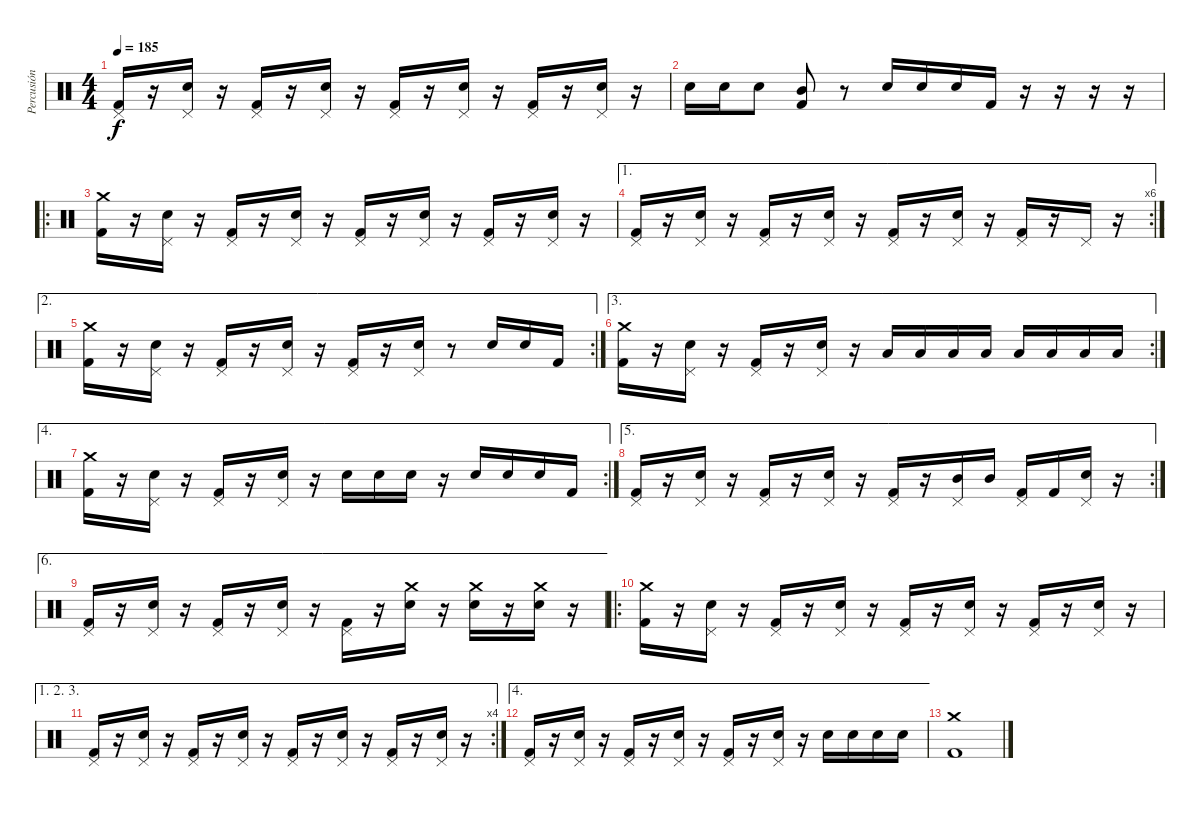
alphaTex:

\track ("Percusión" "Percusión") {solo instrument percussion}
\staff {score}
\articulation defaults
\ts (4 4)
\tempo 185
\clef neutral
\ks c
("Kick (hit) 2" "Pedal Hi-Hat (hit)").16{dy f} r.16 ("Electric Snare (hit)" "Pedal Hi-Hat (hit)").16 r.16 ("Kick (hit) 2" "Pedal Hi-Hat (hit)").16 r.16 ("Electric Snare (hit)" "Pedal Hi-Hat (hit)").16 r.16 ("Kick (hit) 2" "Pedal Hi-Hat (hit)").16 r.16 ("Electric Snare (hit)" "Pedal Hi-Hat (hit)").16 r.16 ("Kick (hit) 2" "Pedal Hi-Hat (hit)").16 r.16 ("Electric Snare (hit)" "Pedal Hi-Hat (hit)").16 r.16 |
"Electric Snare (hit)".16 "Electric Snare (hit)".16 "Electric Snare (hit)".8 ("Mid Tom (hit)" "Kick (hit) 2").8 r.8 "Electric Snare (hit)".16 "Electric Snare (hit)".16 "Electric Snare (hit)".16 "Kick (hit) 2".16 r.16 r.16 r.16 r.16 |
\ro
("Crash medium (hit)" "Kick (hit) 2").16 r.16 ("Electric Snare (hit)" "Pedal Hi-Hat (hit)").16 r.16 ("Kick (hit) 2" "Pedal Hi-Hat (hit)").16 r.16 ("Electric Snare (hit)" "Pedal Hi-Hat (hit)").16 r.16 ("Kick (hit) 2" "Pedal Hi-Hat (hit)").16 r.16 ("Electric Snare (hit)" "Pedal Hi-Hat (hit)").16 r.16 ("Kick (hit) 2" "Pedal Hi-Hat (hit)").16 r.16 ("Electric Snare (hit)" "Pedal Hi-Hat (hit)").16 r.16 |
\ae 1
\rc 6
("Kick (hit) 2" "Pedal Hi-Hat (hit)").16 r.16 ("Electric Snare (hit)" "Pedal Hi-Hat (hit)").16 r.16 ("Kick (hit) 2" "Pedal Hi-Hat (hit)").16 r.16 ("Electric Snare (hit)" "Pedal Hi-Hat (hit)").16 r.16 ("Kick (hit) 2" "Pedal Hi-Hat (hit)").16 r.16 ("Electric Snare (hit)" "Pedal Hi-Hat (hit)").16 r.16 ("Kick (hit) 2" "Pedal Hi-Hat (hit)").16 r.16 "Pedal Hi-Hat (hit)".16 r.16 |
\ae 2
\rc 2
("Crash medium (hit)" "Kick (hit) 2").16 r.16 ("Electric Snare (hit)" "Pedal Hi-Hat (hit)").16 r.16 ("Kick (hit) 2" "Pedal Hi-Hat (hit)").16 r.16 ("Electric Snare (hit)" "Pedal Hi-Hat (hit)").16 r.16 ("Kick (hit) 2" "Pedal Hi-Hat (hit)").16 r.16 ("Electric Snare (hit)" "Pedal Hi-Hat (hit)").16 r.8 "Electric Snare (hit)".16 "Electric Snare (hit)".16 "Kick (hit) 2".16 |
\ae 3
\rc 2
("Crash medium (hit)" "Kick (hit) 2").16 r.16 ("Electric Snare (hit)" "Pedal Hi-Hat (hit)").16 r.16 ("Kick (hit) 2" "Pedal Hi-Hat (hit)").16 r.16 ("Electric Snare (hit)" "Pedal Hi-Hat (hit)").16 r.16 "Low Tom (hit)".16 "Low Tom (hit)".16 "Low Tom (hit)".16 "Low Tom (hit)".16 "Low Tom (hit)".16 "Low Tom (hit)".16 "Low Tom (hit)".16 "Low Tom (hit)".16 |
\ae 4
\rc 2
("Crash medium (hit)" "Kick (hit) 2").16 r.16 ("Electric Snare (hit)" "Pedal Hi-Hat (hit)").16 r.16 ("Kick (hit) 2" "Pedal Hi-Hat (hit)").16 r.16 ("Electric Snare (hit)" "Pedal Hi-Hat (hit)").16 r.16 "Electric Snare (hit)".16 "Electric Snare (hit)".16 "Electric Snare (hit)".16 r.16 "Electric Snare (hit)".16 "Electric Snare (hit)".16 "Electric Snare (hit)".16 "Kick (hit) 2".16 |
\ae 5
\rc 2
("Kick (hit) 2" "Pedal Hi-Hat (hit)").16 r.16 ("Electric Snare (hit)" "Pedal Hi-Hat (hit)").16 r.16 ("Kick (hit) 2" "Pedal Hi-Hat (hit)").16 r.16 ("Electric Snare (hit)" "Pedal Hi-Hat (hit)").16 r.16 ("Kick (hit) 2" "Pedal Hi-Hat (hit)").16 r.16 ("Mid Tom (hit)" "Pedal Hi-Hat (hit)").16 "Mid Tom (hit)".16 ("Kick (hit) 2" "Pedal Hi-Hat (hit)").16 "Kick (hit) 2".16 ("Electric Snare (hit)" "Pedal Hi-Hat (hit)").16 r.16 |
\ae 6
("Kick (hit) 2" "Pedal Hi-Hat (hit)").16 r.16 ("Electric Snare (hit)" "Pedal Hi-Hat (hit)").16 r.16 ("Kick (hit) 2" "Pedal Hi-Hat (hit)").16 r.16 ("Electric Snare (hit)" "Pedal Hi-Hat (hit)").16 r.16 ("Kick (hit) 2" "Pedal Hi-Hat (hit)").16 r.16 ("Electric Snare (hit)" "Crash medium (hit)").16 r.16 ("Electric Snare (hit)" "Crash medium (hit)").16 r.16 ("Electric Snare (hit)" "Crash medium (hit)").16 r.16 |
\ro
("Kick (hit) 2" "Crash medium (hit)").16 r.16 ("Electric Snare (hit)" "Pedal Hi-Hat (hit)").16 r.16 ("Kick (hit) 2" "Pedal Hi-Hat (hit)").16 r.16 ("Electric Snare (hit)" "Pedal Hi-Hat (hit)").16 r.16 ("Kick (hit) 2" "Pedal Hi-Hat (hit)").16 r.16 ("Electric Snare (hit)" "Pedal Hi-Hat (hit)").16 r.16 ("Kick (hit) 2" "Pedal Hi-Hat (hit)").16 r.16 ("Electric Snare (hit)" "Pedal Hi-Hat (hit)").16 r.16 |
\ae (1 2 3)
\rc 4
("Kick (hit) 2" "Pedal Hi-Hat (hit)").16 r.16 ("Electric Snare (hit)" "Pedal Hi-Hat (hit)").16 r.16 ("Kick (hit) 2" "Pedal Hi-Hat (hit)").16 r.16 ("Electric Snare (hit)" "Pedal Hi-Hat (hit)").16 r.16 ("Kick (hit) 2" "Pedal Hi-Hat (hit)").16 r.16 ("Electric Snare (hit)" "Pedal Hi-Hat (hit)").16 r.16 ("Kick (hit) 2" "Pedal Hi-Hat (hit)").16 r.16 ("Electric Snare (hit)" "Pedal Hi-Hat (hit)").16 r.16 |
\ae 4
("Kick (hit) 2" "Pedal Hi-Hat (hit)").16 r.16 ("Electric Snare (hit)" "Pedal Hi-Hat (hit)").16 r.16 ("Kick (hit) 2" "Pedal Hi-Hat (hit)").16 r.16 ("Electric Snare (hit)" "Pedal Hi-Hat (hit)").16 r.16 ("Kick (hit) 2" "Pedal Hi-Hat (hit)").16 r.16 ("Electric Snare (hit)" "Pedal Hi-Hat (hit)").16 r.16 "Electric Snare (hit)".16 "Electric Snare (hit)".16 "Electric Snare (hit)".16 "Electric Snare (hit)".16 |
("Crash medium (hit)" "Kick (hit) 2").1
